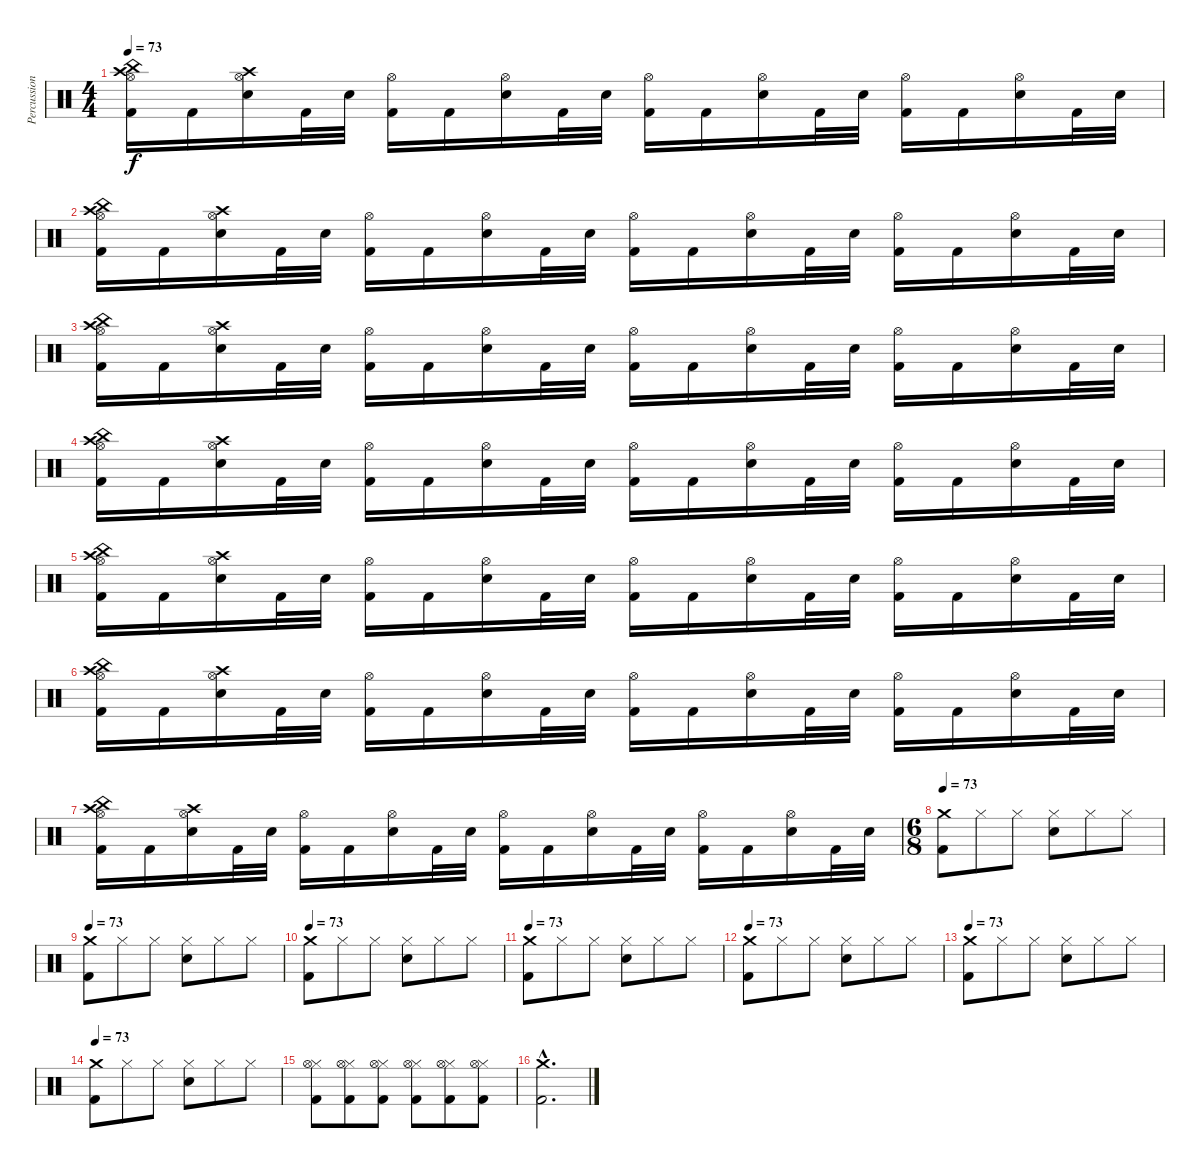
\track ("Percussion" "Percussion") {instrument percussion}
\staff {score}
\articulation defaults
\ts (4 4)
\tempo 73
\clef neutral
\ks c
("China (hit)" "Crash high (hit)" "Hi-Hat (open)" "Kick (hit) 2").16{dy f} "Kick (hit) 2".16 ("Crash high (hit)" "Hi-Hat (open)" "Electric Snare (hit)").16 "Kick (hit) 2".32 "Electric Snare (hit)".32 ("Hi-Hat (open)" "Kick (hit) 2").16 "Kick (hit) 2".16 ("Hi-Hat (open)" "Electric Snare (hit)").16 "Kick (hit) 2".32 "Electric Snare (hit)".32 ("Hi-Hat (open)" "Kick (hit) 2").16 "Kick (hit) 2".16 ("Hi-Hat (open)" "Electric Snare (hit)").16 "Kick (hit) 2".32 "Electric Snare (hit)".32 ("Hi-Hat (open)" "Kick (hit) 2").16 "Kick (hit) 2".16 ("Hi-Hat (open)" "Electric Snare (hit)").16 "Kick (hit) 2".32 "Electric Snare (hit)".32 |
("China (hit)" "Crash high (hit)" "Hi-Hat (open)" "Kick (hit) 2").16 "Kick (hit) 2".16 ("Crash high (hit)" "Hi-Hat (open)" "Electric Snare (hit)").16 "Kick (hit) 2".32 "Electric Snare (hit)".32 ("Hi-Hat (open)" "Kick (hit) 2").16 "Kick (hit) 2".16 ("Hi-Hat (open)" "Electric Snare (hit)").16 "Kick (hit) 2".32 "Electric Snare (hit)".32 ("Hi-Hat (open)" "Kick (hit) 2").16 "Kick (hit) 2".16 ("Hi-Hat (open)" "Electric Snare (hit)").16 "Kick (hit) 2".32 "Electric Snare (hit)".32 ("Hi-Hat (open)" "Kick (hit) 2").16 "Kick (hit) 2".16 ("Hi-Hat (open)" "Electric Snare (hit)").16 "Kick (hit) 2".32 "Electric Snare (hit)".32 |
("China (hit)" "Crash high (hit)" "Hi-Hat (open)" "Kick (hit) 2").16 "Kick (hit) 2".16 ("Crash high (hit)" "Hi-Hat (open)" "Electric Snare (hit)").16 "Kick (hit) 2".32 "Electric Snare (hit)".32 ("Hi-Hat (open)" "Kick (hit) 2").16 "Kick (hit) 2".16 ("Hi-Hat (open)" "Electric Snare (hit)").16 "Kick (hit) 2".32 "Electric Snare (hit)".32 ("Hi-Hat (open)" "Kick (hit) 2").16 "Kick (hit) 2".16 ("Hi-Hat (open)" "Electric Snare (hit)").16 "Kick (hit) 2".32 "Electric Snare (hit)".32 ("Hi-Hat (open)" "Kick (hit) 2").16 "Kick (hit) 2".16 ("Hi-Hat (open)" "Electric Snare (hit)").16 "Kick (hit) 2".32 "Electric Snare (hit)".32 |
("China (hit)" "Crash high (hit)" "Hi-Hat (open)" "Kick (hit) 2").16 "Kick (hit) 2".16 ("Crash high (hit)" "Hi-Hat (open)" "Electric Snare (hit)").16 "Kick (hit) 2".32 "Electric Snare (hit)".32 ("Hi-Hat (open)" "Kick (hit) 2").16 "Kick (hit) 2".16 ("Hi-Hat (open)" "Electric Snare (hit)").16 "Kick (hit) 2".32 "Electric Snare (hit)".32 ("Hi-Hat (open)" "Kick (hit) 2").16 "Kick (hit) 2".16 ("Hi-Hat (open)" "Electric Snare (hit)").16 "Kick (hit) 2".32 "Electric Snare (hit)".32 ("Hi-Hat (open)" "Kick (hit) 2").16 "Kick (hit) 2".16 ("Hi-Hat (open)" "Electric Snare (hit)").16 "Kick (hit) 2".32 "Electric Snare (hit)".32 |
("China (hit)" "Crash high (hit)" "Hi-Hat (open)" "Kick (hit) 2").16 "Kick (hit) 2".16 ("Crash high (hit)" "Hi-Hat (open)" "Electric Snare (hit)").16 "Kick (hit) 2".32 "Electric Snare (hit)".32 ("Hi-Hat (open)" "Kick (hit) 2").16 "Kick (hit) 2".16 ("Hi-Hat (open)" "Electric Snare (hit)").16 "Kick (hit) 2".32 "Electric Snare (hit)".32 ("Hi-Hat (open)" "Kick (hit) 2").16 "Kick (hit) 2".16 ("Hi-Hat (open)" "Electric Snare (hit)").16 "Kick (hit) 2".32 "Electric Snare (hit)".32 ("Hi-Hat (open)" "Kick (hit) 2").16 "Kick (hit) 2".16 ("Hi-Hat (open)" "Electric Snare (hit)").16 "Kick (hit) 2".32 "Electric Snare (hit)".32 |
("China (hit)" "Crash high (hit)" "Hi-Hat (open)" "Kick (hit) 2").16 "Kick (hit) 2".16 ("Crash high (hit)" "Hi-Hat (open)" "Electric Snare (hit)").16 "Kick (hit) 2".32 "Electric Snare (hit)".32 ("Hi-Hat (open)" "Kick (hit) 2").16 "Kick (hit) 2".16 ("Hi-Hat (open)" "Electric Snare (hit)").16 "Kick (hit) 2".32 "Electric Snare (hit)".32 ("Hi-Hat (open)" "Kick (hit) 2").16 "Kick (hit) 2".16 ("Hi-Hat (open)" "Electric Snare (hit)").16 "Kick (hit) 2".32 "Electric Snare (hit)".32 ("Hi-Hat (open)" "Kick (hit) 2").16 "Kick (hit) 2".16 ("Hi-Hat (open)" "Electric Snare (hit)").16 "Kick (hit) 2".32 "Electric Snare (hit)".32 |
("China (hit)" "Crash high (hit)" "Hi-Hat (open)" "Kick (hit) 2").16 "Kick (hit) 2".16 ("Crash high (hit)" "Hi-Hat (open)" "Electric Snare (hit)").16 "Kick (hit) 2".32 "Electric Snare (hit)".32 ("Hi-Hat (open)" "Kick (hit) 2").16 "Kick (hit) 2".16 ("Hi-Hat (open)" "Electric Snare (hit)").16 "Kick (hit) 2".32 "Electric Snare (hit)".32 ("Hi-Hat (open)" "Kick (hit) 2").16 "Kick (hit) 2".16 ("Hi-Hat (open)" "Electric Snare (hit)").16 "Kick (hit) 2".32 "Electric Snare (hit)".32 ("Hi-Hat (open)" "Kick (hit) 2").16 "Kick (hit) 2".16 ("Hi-Hat (open)" "Electric Snare (hit)").16 "Kick (hit) 2".32 "Electric Snare (hit)".32 |
\ts (6 8)
\tempo 73
("Crash medium (hit)" "Kick (hit) 2").8 "Hi-Hat (closed)".8 "Hi-Hat (closed)".8 ("Hi-Hat (closed)" "Snare (hit) 2").8 "Hi-Hat (closed)".8 "Hi-Hat (closed)".8 |
\tempo 73
("Crash medium (hit)" "Kick (hit) 2").8 "Hi-Hat (closed)".8 "Hi-Hat (closed)".8 ("Hi-Hat (closed)" "Snare (hit) 2").8 "Hi-Hat (closed)".8 "Hi-Hat (closed)".8 |
\tempo 73
("Crash medium (hit)" "Kick (hit) 2").8 "Hi-Hat (closed)".8 "Hi-Hat (closed)".8 ("Hi-Hat (closed)" "Snare (hit) 2").8 "Hi-Hat (closed)".8 "Hi-Hat (closed)".8 |
\tempo 73
("Crash medium (hit)" "Kick (hit) 2").8 "Hi-Hat (closed)".8 "Hi-Hat (closed)".8 ("Hi-Hat (closed)" "Snare (hit) 2").8 "Hi-Hat (closed)".8 "Hi-Hat (closed)".8 |
\tempo 73
("Crash medium (hit)" "Kick (hit) 2").8 "Hi-Hat (closed)".8 "Hi-Hat (closed)".8 ("Hi-Hat (closed)" "Snare (hit) 2").8 "Hi-Hat (closed)".8 "Hi-Hat (closed)".8 |
\tempo 73
("Crash medium (hit)" "Kick (hit) 2").8 "Hi-Hat (closed)".8 "Hi-Hat (closed)".8 ("Hi-Hat (closed)" "Snare (hit) 2").8 "Hi-Hat (closed)".8 "Hi-Hat (closed)".8 |
\tempo 73
("Crash medium (hit)" "Kick (hit) 2").8 "Hi-Hat (closed)".8 "Hi-Hat (closed)".8 ("Hi-Hat (closed)" "Snare (hit) 2").8 "Hi-Hat (closed)".8 "Hi-Hat (closed)".8 |
("Hi-Hat (closed)" "Hi-Hat (open)" "Kick (hit) 2").8 ("Hi-Hat (closed)" "Hi-Hat (open)" "Kick (hit) 2").8 ("Hi-Hat (closed)" "Hi-Hat (open)" "Kick (hit) 2").8 ("Hi-Hat (closed)" "Hi-Hat (open)" "Kick (hit) 2").8 ("Hi-Hat (closed)" "Hi-Hat (open)" "Kick (hit) 2").8 ("Hi-Hat (closed)" "Hi-Hat (open)" "Kick (hit) 2").8 |
("Crash medium (hit)"{hac} "Kick (hit) 2"{hac}).2{d}
